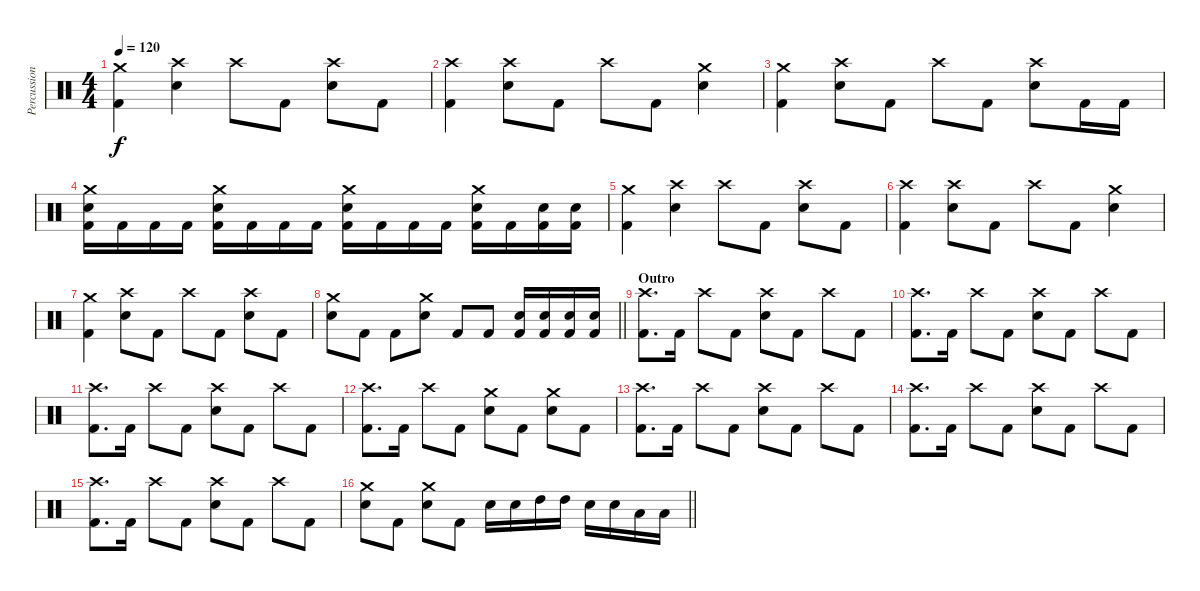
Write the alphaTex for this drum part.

\track ("Percussion" "Percussion") {instrument percussion}
\staff {score}
\articulation defaults
\ts (4 4)
\tempo 120
\clef neutral
\ks c
("Crash medium (hit)" "Kick (hit) 2").4{dy f} ("Crash high (hit)" "Snare (hit) 2").4 "Crash high (hit)".8 "Kick (hit) 2".8 ("Crash high (hit)" "Snare (hit) 2").8 "Kick (hit) 2".8 |
("Crash high (hit)" "Kick (hit) 2").4 ("Crash high (hit)" "Snare (hit) 2").8 "Kick (hit) 2".8 "Crash high (hit)".8 "Kick (hit) 2".8 ("Crash medium (hit)" "Snare (hit) 2").4 |
("Crash medium (hit)" "Kick (hit) 2").4 ("Crash high (hit)" "Snare (hit) 2").8 "Kick (hit) 2".8 "Crash high (hit)".8 "Kick (hit) 2".8 ("Crash high (hit)" "Snare (hit) 2").8 "Kick (hit) 2".16 "Kick (hit) 2".16 |
("Crash medium (hit)" "Snare (hit) 2" "Kick (hit) 2").16 "Kick (hit) 2".16 "Kick (hit) 2".16 "Kick (hit) 2".16 ("Crash medium (hit)" "Snare (hit) 2" "Kick (hit) 2").16 "Kick (hit) 2".16 "Kick (hit) 2".16 "Kick (hit) 2".16 ("Crash medium (hit)" "Snare (hit) 2" "Kick (hit) 2").16 "Kick (hit) 2".16 "Kick (hit) 2".16 "Kick (hit) 2".16 ("Crash medium (hit)" "Snare (hit) 2" "Kick (hit) 2").16 "Kick (hit) 2".16 ("Snare (hit) 2" "Kick (hit) 2").16 ("Snare (hit) 2" "Kick (hit) 2").16 |
("Crash medium (hit)" "Kick (hit) 2").4 ("Crash high (hit)" "Snare (hit) 2").4 "Crash high (hit)".8 "Kick (hit) 2".8 ("Crash high (hit)" "Snare (hit) 2").8 "Kick (hit) 2".8 |
("Crash high (hit)" "Kick (hit) 2").4 ("Crash high (hit)" "Snare (hit) 2").8 "Kick (hit) 2".8 "Crash high (hit)".8 "Kick (hit) 2".8 ("Crash medium (hit)" "Snare (hit) 2").4 |
("Crash medium (hit)" "Kick (hit) 2").4 ("Crash high (hit)" "Snare (hit) 2").8 "Kick (hit) 2".8 "Crash high (hit)".8 "Kick (hit) 2".8 ("Crash high (hit)" "Snare (hit) 2").8 "Kick (hit) 2".8 |
\barLineRight lightlight
("Crash medium (hit)" "Snare (hit) 2").8 "Kick (hit) 2".8 "Kick (hit) 2".8 ("Crash medium (hit)" "Snare (hit) 2").8 "Kick (hit) 2".8 "Kick (hit) 2".8 ("Snare (hit) 2" "Kick (hit) 2").16 ("Snare (hit) 2" "Kick (hit) 2").16 ("Snare (hit) 2" "Kick (hit) 2").16 ("Snare (hit) 2" "Kick (hit) 2").16 |
\section ("" "Outro")
("Crash high (hit)" "Kick (hit) 2").8{d} "Kick (hit) 2".16 "Crash high (hit)".8 "Kick (hit) 2".8 ("Crash high (hit)" "Snare (hit) 2").8 "Kick (hit) 2".8 "Crash high (hit)".8 "Kick (hit) 2".8 |
("Crash high (hit)" "Kick (hit) 2").8{d} "Kick (hit) 2".16 "Crash high (hit)".8 "Kick (hit) 2".8 ("Crash high (hit)" "Snare (hit) 2").8 "Kick (hit) 2".8 "Crash high (hit)".8 "Kick (hit) 2".8 |
("Crash high (hit)" "Kick (hit) 2").8{d} "Kick (hit) 2".16 "Crash high (hit)".8 "Kick (hit) 2".8 ("Crash high (hit)" "Snare (hit) 2").8 "Kick (hit) 2".8 "Crash high (hit)".8 "Kick (hit) 2".8 |
("Crash high (hit)" "Kick (hit) 2").8{d} "Kick (hit) 2".16 "Crash high (hit)".8 "Kick (hit) 2".8 ("Crash medium (hit)" "Snare (hit) 2").8 "Kick (hit) 2".8 ("Crash medium (hit)" "Snare (hit) 2").8 "Kick (hit) 2".8 |
("Crash high (hit)" "Kick (hit) 2").8{d} "Kick (hit) 2".16 "Crash high (hit)".8 "Kick (hit) 2".8 ("Crash high (hit)" "Snare (hit) 2").8 "Kick (hit) 2".8 "Crash high (hit)".8 "Kick (hit) 2".8 |
("Crash high (hit)" "Kick (hit) 2").8{d} "Kick (hit) 2".16 "Crash high (hit)".8 "Kick (hit) 2".8 ("Crash high (hit)" "Snare (hit) 2").8 "Kick (hit) 2".8 "Crash high (hit)".8 "Kick (hit) 2".8 |
("Crash high (hit)" "Kick (hit) 2").8{d} "Kick (hit) 2".16 "Crash high (hit)".8 "Kick (hit) 2".8 ("Crash high (hit)" "Snare (hit) 2").8 "Kick (hit) 2".8 "Crash high (hit)".8 "Kick (hit) 2".8 |
\barLineRight lightlight
("Crash medium (hit)" "Snare (hit) 2").8 "Kick (hit) 2".8 ("Crash medium (hit)" "Snare (hit) 2").8 "Kick (hit) 2".8 "Snare (hit) 2".16 "Snare (hit) 2".16 "High Tom (hit)".16 "High Tom (hit)".16 "Snare (hit) 2".16 "Snare (hit) 2".16 "Low Tom (hit)".16 "Low Tom (hit)".16
